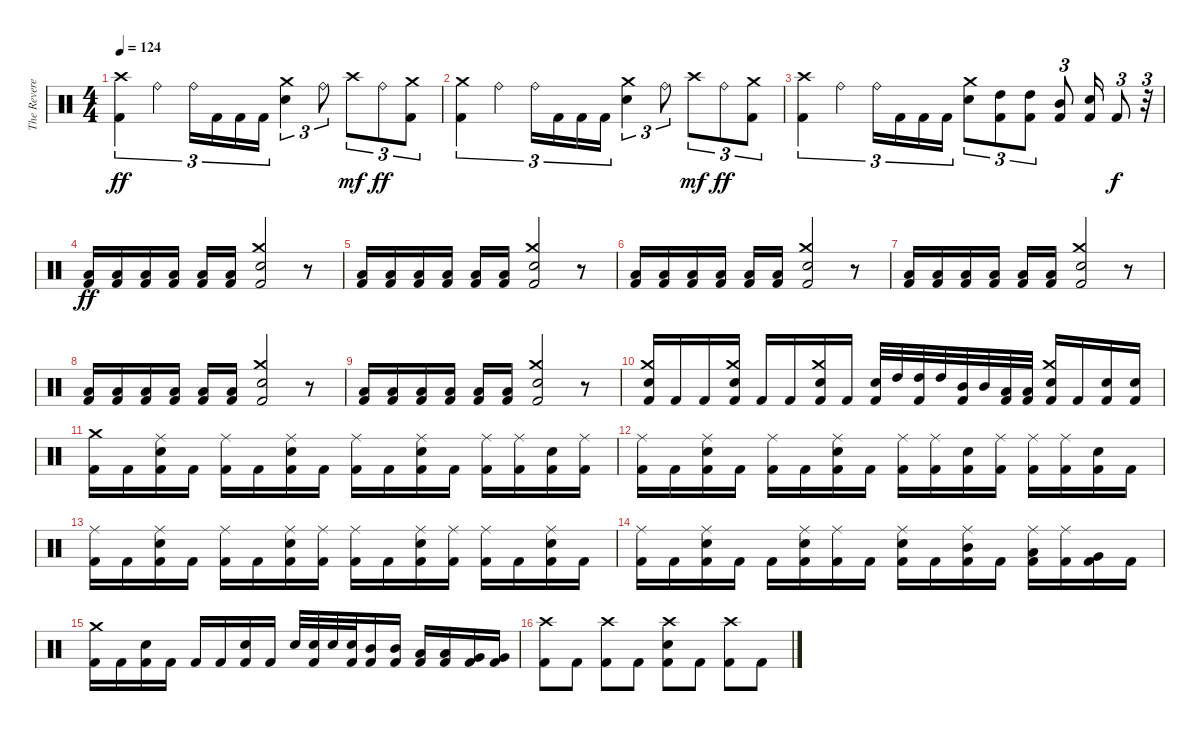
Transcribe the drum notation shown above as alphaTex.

\track ("The Reverend" "The Revere") {instrument percussion}
\staff {score}
\articulation defaults
\ts (4 4)
\tempo 124
\clef neutral
\ks c
("Crash high (hit)" "Kick (hit) 2").4{tu (3 2) dy ff} "Ride (bell)".4{tu (3 2)} "Ride (bell)".16{tu (3 2)} "Kick (hit) 2".16{tu (3 2)} "Kick (hit) 2".16{tu (3 2)} "Kick (hit) 2".16{tu (3 2)} ("Crash medium (hit)" "Electric Snare (hit)").4{tu (3 2)} "Ride (bell)".8{tu (3 2)} "Crash high (hit)".8{tu (3 2) dy mf} "Ride (bell)".8{tu (3 2) dy ff} ("Crash medium (hit)" "Kick (hit) 2").8{tu (3 2)} |
("Crash medium (hit)" "Kick (hit) 2").4{tu (3 2)} "Ride (bell)".4{tu (3 2)} "Ride (bell)".16{tu (3 2)} "Kick (hit) 2".16{tu (3 2)} "Kick (hit) 2".16{tu (3 2)} "Kick (hit) 2".16{tu (3 2)} ("Crash medium (hit)" "Electric Snare (hit)").4{tu (3 2)} "Ride (bell)".8{tu (3 2)} "Crash high (hit)".8{tu (3 2) dy mf} "Ride (bell)".8{tu (3 2) dy ff} ("Crash medium (hit)" "Kick (hit) 2").8{tu (3 2)} |
("Crash high (hit)" "Kick (hit) 2").4{tu (3 2)} "Ride (bell)".4{tu (3 2)} "Ride (bell)".16{tu (3 2)} "Kick (hit) 2".16{tu (3 2)} "Kick (hit) 2".16{tu (3 2)} "Kick (hit) 2".16{tu (3 2)} ("Crash medium (hit)" "Electric Snare (hit)").8{tu (3 2)} ("High Tom (hit)" "Kick (hit) 2").8{tu (3 2)} ("High Tom (hit)" "Kick (hit) 2").8{tu (3 2)} ("Mid Tom (hit)" "Kick (hit) 2").8{tu (3 2)} ("Electric Snare (hit)" "Kick (hit) 2").16 "Kick (hit) 2".8{tu (3 2) dy f} r.32{tu (3 2)} |
("Low Tom (hit)" "Kick (hit) 2").16{dy ff} ("Low Tom (hit)" "Kick (hit) 2").16 ("Low Tom (hit)" "Kick (hit) 2").16 ("Low Tom (hit)" "Kick (hit) 2").16 ("Low Tom (hit)" "Kick (hit) 2").16 ("Low Tom (hit)" "Kick (hit) 2").16 ("Crash medium (hit)" "Electric Snare (hit)" "Kick (hit) 2").2 r.8 |
("Low Tom (hit)" "Kick (hit) 2").16 ("Low Tom (hit)" "Kick (hit) 2").16 ("Low Tom (hit)" "Kick (hit) 2").16 ("Low Tom (hit)" "Kick (hit) 2").16 ("Low Tom (hit)" "Kick (hit) 2").16 ("Low Tom (hit)" "Kick (hit) 2").16 ("Crash medium (hit)" "Electric Snare (hit)" "Kick (hit) 2").2 r.8 |
("Low Tom (hit)" "Kick (hit) 2").16 ("Low Tom (hit)" "Kick (hit) 2").16 ("Low Tom (hit)" "Kick (hit) 2").16 ("Low Tom (hit)" "Kick (hit) 2").16 ("Low Tom (hit)" "Kick (hit) 2").16 ("Low Tom (hit)" "Kick (hit) 2").16 ("Crash medium (hit)" "Electric Snare (hit)" "Kick (hit) 2").2 r.8 |
("Low Tom (hit)" "Kick (hit) 2").16 ("Low Tom (hit)" "Kick (hit) 2").16 ("Low Tom (hit)" "Kick (hit) 2").16 ("Low Tom (hit)" "Kick (hit) 2").16 ("Low Tom (hit)" "Kick (hit) 2").16 ("Low Tom (hit)" "Kick (hit) 2").16 ("Crash medium (hit)" "Electric Snare (hit)" "Kick (hit) 2").2 r.8 |
("Low Tom (hit)" "Kick (hit) 2").16 ("Low Tom (hit)" "Kick (hit) 2").16 ("Low Tom (hit)" "Kick (hit) 2").16 ("Low Tom (hit)" "Kick (hit) 2").16 ("Low Tom (hit)" "Kick (hit) 2").16 ("Low Tom (hit)" "Kick (hit) 2").16 ("Crash medium (hit)" "Electric Snare (hit)" "Kick (hit) 2").2 r.8 |
("Low Tom (hit)" "Kick (hit) 2").16 ("Low Tom (hit)" "Kick (hit) 2").16 ("Low Tom (hit)" "Kick (hit) 2").16 ("Low Tom (hit)" "Kick (hit) 2").16 ("Low Tom (hit)" "Kick (hit) 2").16 ("Low Tom (hit)" "Kick (hit) 2").16 ("Crash medium (hit)" "Electric Snare (hit)" "Kick (hit) 2").2 r.8 |
("Crash medium (hit)" "Electric Snare (hit)" "Kick (hit) 2").16 "Kick (hit) 2".16 "Kick (hit) 2".16 ("Crash medium (hit)" "Electric Snare (hit)" "Kick (hit) 2").16 "Kick (hit) 2".16 "Kick (hit) 2".16 ("Crash medium (hit)" "Electric Snare (hit)" "Kick (hit) 2").16 "Kick (hit) 2".16 ("Electric Snare (hit)" "Kick (hit) 2").32 "High Tom (hit)".32 ("High Tom (hit)" "Kick (hit) 2").32 "High Tom (hit)".32 ("Mid Tom (hit)" "Kick (hit) 2").32 "Mid Tom (hit)".32 ("Low Tom (hit)" "Kick (hit) 2").32 ("Low Tom (hit)" "Kick (hit) 2").32 ("Crash medium (hit)" "Electric Snare (hit)" "Kick (hit) 2").16 "Kick (hit) 2".16 ("Electric Snare (hit)" "Kick (hit) 2").16 ("Electric Snare (hit)" "Kick (hit) 2").16 |
("Crash medium (hit)" "Kick (hit) 2").16 "Kick (hit) 2".16 ("Ride (middle)" "Electric Snare (hit)" "Kick (hit) 2").16 "Kick (hit) 2".16 ("Ride (middle)" "Kick (hit) 2").16 "Kick (hit) 2".16 ("Ride (middle)" "Electric Snare (hit)" "Kick (hit) 2").16 "Kick (hit) 2".16 ("Ride (middle)" "Kick (hit) 2").16 "Kick (hit) 2".16 ("Ride (middle)" "Electric Snare (hit)" "Kick (hit) 2").16 "Kick (hit) 2".16 ("Ride (middle)" "Kick (hit) 2").16 ("Ride (middle)" "Kick (hit) 2").16 ("Electric Snare (hit)" "Kick (hit) 2").16 ("Ride (middle)" "Kick (hit) 2").16 |
("Ride (middle)" "Kick (hit) 2").16 "Kick (hit) 2".16 ("Ride (middle)" "Electric Snare (hit)" "Kick (hit) 2").16 "Kick (hit) 2".16 ("Ride (middle)" "Kick (hit) 2").16 "Kick (hit) 2".16 ("Ride (middle)" "Electric Snare (hit)" "Kick (hit) 2").16 "Kick (hit) 2".16 ("Ride (middle)" "Kick (hit) 2").16 ("Ride (middle)" "Kick (hit) 2").16 ("Electric Snare (hit)" "Kick (hit) 2").16 ("Ride (middle)" "Kick (hit) 2").16 ("Ride (middle)" "Kick (hit) 2").16 ("Ride (middle)" "Kick (hit) 2").16 ("Electric Snare (hit)" "Kick (hit) 2").16 "Kick (hit) 2".16 |
("Ride (middle)" "Kick (hit) 2").16 "Kick (hit) 2".16 ("Ride (middle)" "Electric Snare (hit)" "Kick (hit) 2").16 "Kick (hit) 2".16 ("Ride (middle)" "Kick (hit) 2").16 "Kick (hit) 2".16 ("Ride (middle)" "Electric Snare (hit)" "Kick (hit) 2").16 ("Ride (middle)" "Kick (hit) 2").16 ("Ride (middle)" "Kick (hit) 2").16 "Kick (hit) 2".16 ("Ride (middle)" "Electric Snare (hit)" "Kick (hit) 2").16 ("Ride (middle)" "Kick (hit) 2").16 ("Ride (middle)" "Kick (hit) 2").16 "Kick (hit) 2".16 ("Ride (middle)" "Electric Snare (hit)" "Kick (hit) 2").16 "Kick (hit) 2".16 |
("Ride (middle)" "Kick (hit) 2").16 "Kick (hit) 2".16 ("Ride (middle)" "Electric Snare (hit)" "Kick (hit) 2").16 "Kick (hit) 2".16 "Kick (hit) 2".16 ("Ride (middle)" "Electric Snare (hit)" "Kick (hit) 2").16 ("Ride (middle)" "Kick (hit) 2").16 "Kick (hit) 2".16 ("Ride (middle)" "Electric Snare (hit)" "Kick (hit) 2").16 "Kick (hit) 2".16 ("Ride (middle)" "Mid Tom (hit)" "Kick (hit) 2").16 "Kick (hit) 2".16 ("Ride (middle)" "Low Tom (hit)" "Kick (hit) 2").16 ("Ride (middle)" "Kick (hit) 2").16 ("Very Low Tom (hit)" "Kick (hit) 2").16 "Kick (hit) 2".16 |
("Crash medium (hit)" "Kick (hit) 2").16 "Kick (hit) 2".16 ("Electric Snare (hit)" "Kick (hit) 2").16 "Kick (hit) 2".16 "Kick (hit) 2".16 "Kick (hit) 2".16 ("Electric Snare (hit)" "Kick (hit) 2").16 "Kick (hit) 2".16 "Electric Snare (hit)".32 ("Electric Snare (hit)" "Kick (hit) 2").32 "Electric Snare (hit)".32 ("Electric Snare (hit)" "Kick (hit) 2").32 ("Mid Tom (hit)" "Kick (hit) 2").16 ("Mid Tom (hit)" "Kick (hit) 2").16 ("Low Tom (hit)" "Kick (hit) 2").16 ("Low Tom (hit)" "Kick (hit) 2").16 ("Very Low Tom (hit)" "Kick (hit) 2").16 ("Very Low Tom (hit)" "Kick (hit) 2").16 |
("Crash high (hit)" "Kick (hit) 2").8 "Kick (hit) 2".8 ("Crash high (hit)" "Kick (hit) 2").8 "Kick (hit) 2".8 ("Crash high (hit)" "Electric Snare (hit)" "Kick (hit) 2").8 "Kick (hit) 2".8 ("Crash high (hit)" "Kick (hit) 2").8 "Kick (hit) 2".8
